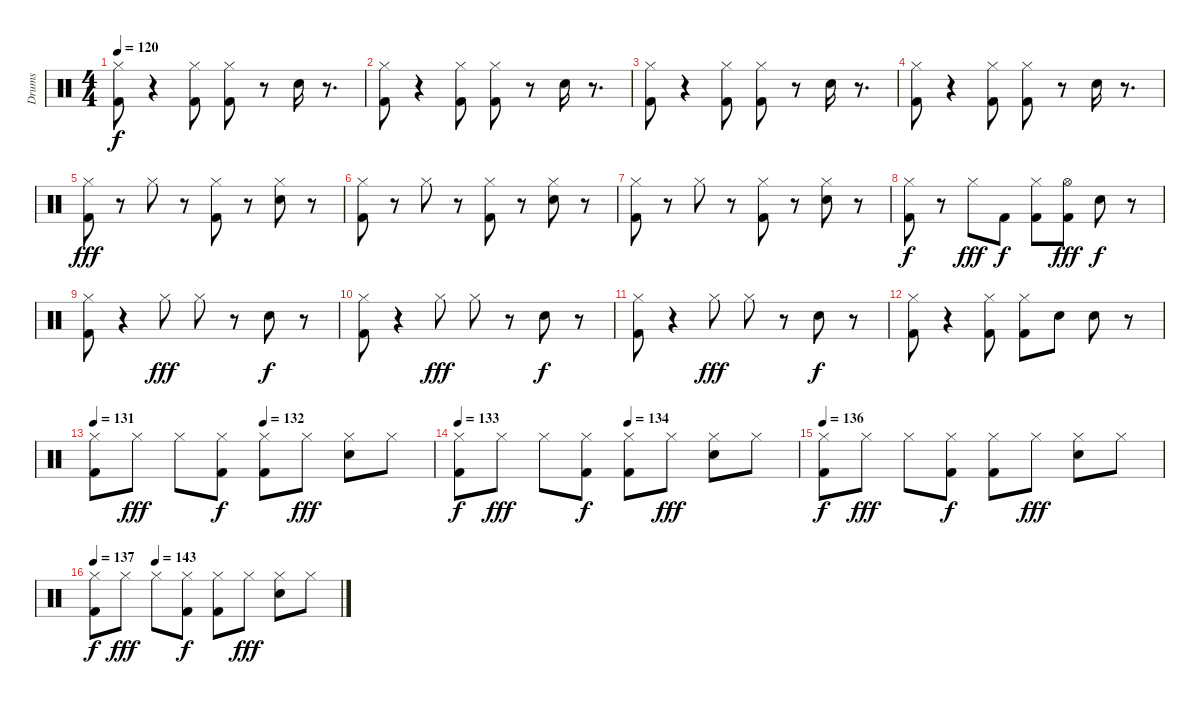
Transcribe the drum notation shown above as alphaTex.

\track ("Drums" "Drums") {instrument percussion}
\staff {score}
\articulation defaults
\ts (4 4)
\tempo 120
\clef neutral
\ks c
("Hi-Hat (closed)" "Kick (hit) 2").8{dy f} r.4 ("Hi-Hat (closed)" "Kick (hit) 2").8 ("Hi-Hat (closed)" "Kick (hit) 2").8 r.8 "Snare (hit) 2".16 r.8{d} |
("Hi-Hat (closed)" "Kick (hit) 2").8 r.4 ("Hi-Hat (closed)" "Kick (hit) 2").8 ("Hi-Hat (closed)" "Kick (hit) 2").8 r.8 "Snare (hit) 2".16 r.8{d} |
("Hi-Hat (closed)" "Kick (hit) 2").8 r.4 ("Hi-Hat (closed)" "Kick (hit) 2").8 ("Hi-Hat (closed)" "Kick (hit) 2").8 r.8 "Snare (hit) 2".16 r.8{d} |
("Hi-Hat (closed)" "Kick (hit) 2").8 r.4 ("Hi-Hat (closed)" "Kick (hit) 2").8 ("Hi-Hat (closed)" "Kick (hit) 2").8 r.8 "Snare (hit) 2".16 r.8{d} |
("Hi-Hat (closed)" "Kick (hit) 2").8{dy fff} r.8 "Hi-Hat (closed)".8 r.8 ("Hi-Hat (closed)" "Kick (hit) 2").8 r.8 ("Hi-Hat (closed)" "Snare (hit) 2").8 r.8 |
("Hi-Hat (closed)" "Kick (hit) 2").8 r.8 "Hi-Hat (closed)".8 r.8 ("Hi-Hat (closed)" "Kick (hit) 2").8 r.8 ("Hi-Hat (closed)" "Snare (hit) 2").8 r.8 |
("Hi-Hat (closed)" "Kick (hit) 2").8 r.8 "Hi-Hat (closed)".8 r.8 ("Hi-Hat (closed)" "Kick (hit) 2").8 r.8 ("Hi-Hat (closed)" "Snare (hit) 2").8 r.8 |
("Hi-Hat (closed)" "Kick (hit) 2").8{dy f} r.8 "Hi-Hat (closed)".8{dy fff} "Kick (hit) 2".8{dy f} ("Hi-Hat (closed)" "Kick (hit) 2").8 ("Hi-Hat (open)" "Kick (hit) 2").8{dy fff} "Snare (hit) 2".8{dy f} r.8 |
("Hi-Hat (closed)" "Kick (hit) 2").8 r.4 "Hi-Hat (closed)".8{dy fff} "Hi-Hat (closed)".8 r.8 "Snare (hit) 2".8{dy f} r.8 |
("Hi-Hat (closed)" "Kick (hit) 2").8 r.4 "Hi-Hat (closed)".8{dy fff} "Hi-Hat (closed)".8 r.8 "Snare (hit) 2".8{dy f} r.8 |
("Hi-Hat (closed)" "Kick (hit) 2").8 r.4 "Hi-Hat (closed)".8{dy fff} "Hi-Hat (closed)".8 r.8 "Snare (hit) 2".8{dy f} r.8 |
("Hi-Hat (closed)" "Kick (hit) 2").8 r.4 ("Hi-Hat (closed)" "Kick (hit) 2").8 ("Hi-Hat (closed)" "Kick (hit) 2").8 "Snare (hit) 2".8 "Snare (hit) 2".8 r.8 |
\tempo 131
\tempo (132 0.5)
("Hi-Hat (closed)" "Kick (hit) 2").8 "Hi-Hat (closed)".8{dy fff} "Hi-Hat (closed)".8 ("Hi-Hat (closed)" "Kick (hit) 2").8{dy f} ("Hi-Hat (closed)" "Kick (hit) 2").8 "Hi-Hat (closed)".8{dy fff} ("Hi-Hat (closed)" "Snare (hit) 2").8 "Hi-Hat (closed)".8 |
\tempo 133
\tempo (134 0.5)
("Hi-Hat (closed)" "Kick (hit) 2").8{dy f} "Hi-Hat (closed)".8{dy fff} "Hi-Hat (closed)".8 ("Hi-Hat (closed)" "Kick (hit) 2").8{dy f} ("Hi-Hat (closed)" "Kick (hit) 2").8 "Hi-Hat (closed)".8{dy fff} ("Hi-Hat (closed)" "Snare (hit) 2").8 "Hi-Hat (closed)".8 |
\tempo 136
("Hi-Hat (closed)" "Kick (hit) 2").8{dy f} "Hi-Hat (closed)".8{dy fff} "Hi-Hat (closed)".8 ("Hi-Hat (closed)" "Kick (hit) 2").8{dy f} ("Hi-Hat (closed)" "Kick (hit) 2").8 "Hi-Hat (closed)".8{dy fff} ("Hi-Hat (closed)" "Snare (hit) 2").8 "Hi-Hat (closed)".8 |
\tempo 137
\tempo (143 0.25)
("Hi-Hat (closed)" "Kick (hit) 2").8{dy f} "Hi-Hat (closed)".8{dy fff} "Hi-Hat (closed)".8 ("Hi-Hat (closed)" "Kick (hit) 2").8{dy f} ("Hi-Hat (closed)" "Kick (hit) 2").8 "Hi-Hat (closed)".8{dy fff} ("Hi-Hat (closed)" "Snare (hit) 2").8 "Hi-Hat (closed)".8
